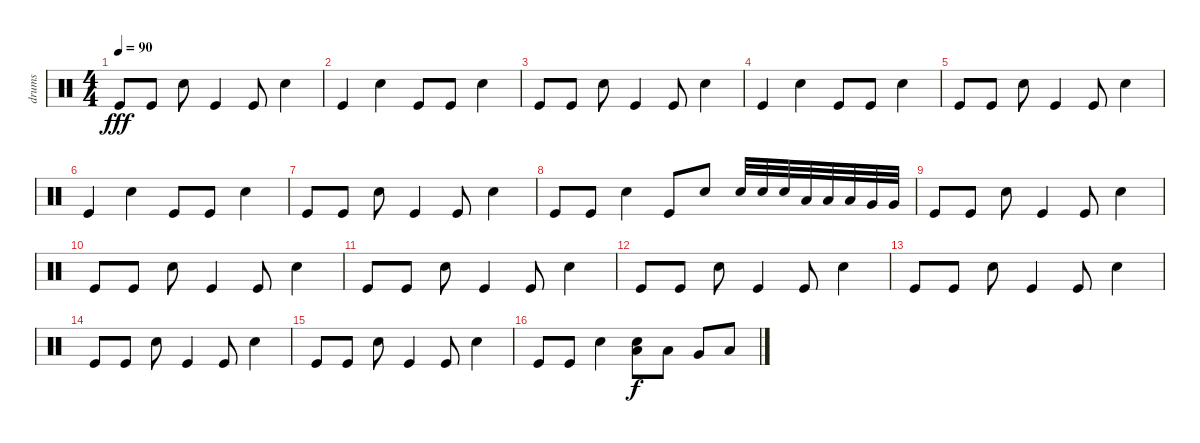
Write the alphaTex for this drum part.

\track ("drums" "drums") {instrument percussion}
\staff {score}
\articulation defaults
\ts (4 4)
\tempo 90
\clef neutral
\ks c "Kick (hit)".8{dy fff} "Kick (hit)".8 "Electric Snare (hit)".8 "Kick (hit)".4 "Kick (hit)".8 "Electric Snare (hit)".4
|
"Kick (hit)".4 "Electric Snare (hit)".4 "Kick (hit)".8 "Kick (hit)".8 "Electric Snare (hit)".4 |
"Kick (hit)".8 "Kick (hit)".8 "Electric Snare (hit)".8 "Kick (hit)".4 "Kick (hit)".8 "Electric Snare (hit)".4 |
"Kick (hit)".4 "Electric Snare (hit)".4 "Kick (hit)".8 "Kick (hit)".8 "Electric Snare (hit)".4 |
"Kick (hit)".8 "Kick (hit)".8 "Electric Snare (hit)".8 "Kick (hit)".4 "Kick (hit)".8 "Electric Snare (hit)".4 |
"Kick (hit)".4 "Electric Snare (hit)".4 "Kick (hit)".8 "Kick (hit)".8 "Electric Snare (hit)".4 |
"Kick (hit)".8 "Kick (hit)".8 "Electric Snare (hit)".8 "Kick (hit)".4 "Kick (hit)".8 "Electric Snare (hit)".4 |
"Kick (hit)".8 "Kick (hit)".8 "Electric Snare (hit)".4 "Kick (hit)".8 "Electric Snare (hit)".8 "Electric Snare (hit)".32 "Electric Snare (hit)".32 "Electric Snare (hit)".32 "Low Tom (hit)".32 "Low Tom (hit)".32 "Low Tom (hit)".32 "Very Low Tom (hit)".32 "Very Low Tom (hit)".32 |
"Kick (hit)".8 "Kick (hit)".8 "Electric Snare (hit)".8 "Kick (hit)".4 "Kick (hit)".8 "Electric Snare (hit)".4 |
"Kick (hit)".8 "Kick (hit)".8 "Electric Snare (hit)".8 "Kick (hit)".4 "Kick (hit)".8 "Electric Snare (hit)".4 |
"Kick (hit)".8 "Kick (hit)".8 "Electric Snare (hit)".8 "Kick (hit)".4 "Kick (hit)".8 "Electric Snare (hit)".4 |
"Kick (hit)".8 "Kick (hit)".8 "Electric Snare (hit)".8 "Kick (hit)".4 "Kick (hit)".8 "Electric Snare (hit)".4 |
"Kick (hit)".8 "Kick (hit)".8 "Electric Snare (hit)".8 "Kick (hit)".4 "Kick (hit)".8 "Electric Snare (hit)".4 |
"Kick (hit)".8 "Kick (hit)".8 "Electric Snare (hit)".8 "Kick (hit)".4 "Kick (hit)".8 "Electric Snare (hit)".4 |
"Kick (hit)".8 "Kick (hit)".8 "Electric Snare (hit)".8 "Kick (hit)".4 "Kick (hit)".8 "Electric Snare (hit)".4 |
"Kick (hit)".8 "Kick (hit)".8 "Electric Snare (hit)".4 ("Electric Snare (hit)" "Low Tom (hit)").8{dy f} "Low Tom (hit)".8 "Very Low Tom (hit)".8 "Low Floor Tom (hit)".8
